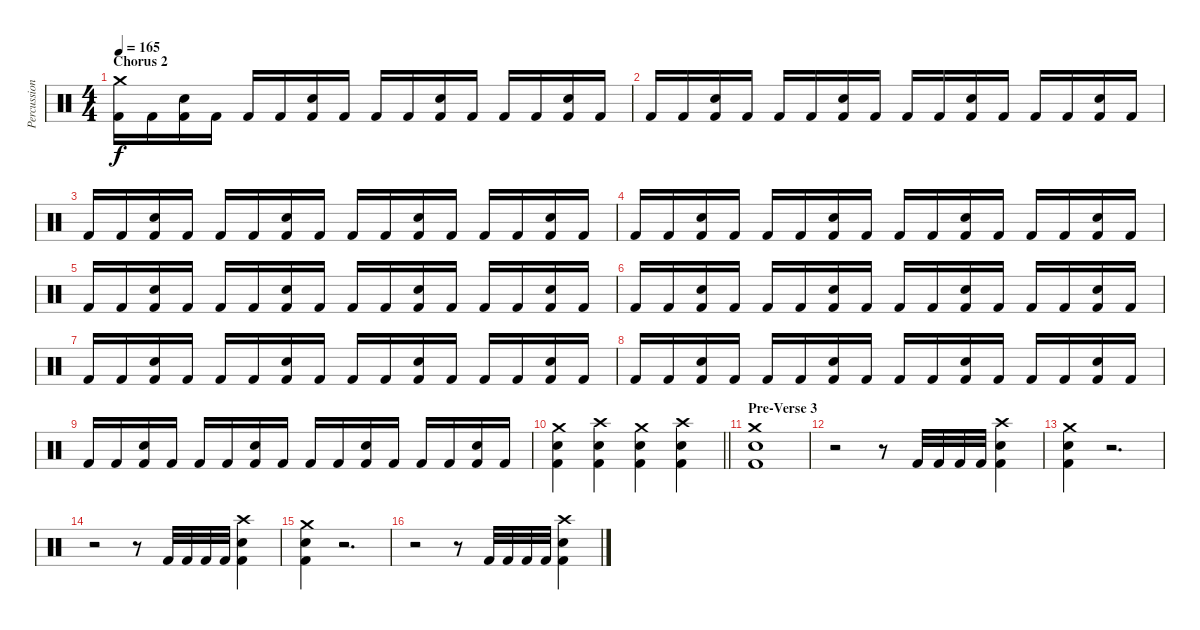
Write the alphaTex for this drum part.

\track ("Percussion" "Percussion") {instrument percussion}
\staff {score}
\articulation defaults
\ts (4 4)
\section ("" "Chorus 2")
\tempo 165
\clef neutral
\ks c
("Crash medium (hit)" "Kick (hit) 2").16{dy f} "Kick (hit) 2".16 ("Kick (hit) 2" "Snare (hit) 2").16 "Kick (hit) 2".16 "Kick (hit) 2".16 "Kick (hit) 2".16 ("Kick (hit) 2" "Snare (hit) 2").16 "Kick (hit) 2".16 "Kick (hit) 2".16 "Kick (hit) 2".16 ("Kick (hit) 2" "Snare (hit) 2").16 "Kick (hit) 2".16 "Kick (hit) 2".16 "Kick (hit) 2".16 ("Kick (hit) 2" "Snare (hit) 2").16 "Kick (hit) 2".16 |
"Kick (hit) 2".16 "Kick (hit) 2".16 ("Kick (hit) 2" "Snare (hit) 2").16 "Kick (hit) 2".16 "Kick (hit) 2".16 "Kick (hit) 2".16 ("Kick (hit) 2" "Snare (hit) 2").16 "Kick (hit) 2".16 "Kick (hit) 2".16 "Kick (hit) 2".16 ("Kick (hit) 2" "Snare (hit) 2").16 "Kick (hit) 2".16 "Kick (hit) 2".16 "Kick (hit) 2".16 ("Kick (hit) 2" "Snare (hit) 2").16 "Kick (hit) 2".16 |
"Kick (hit) 2".16 "Kick (hit) 2".16 ("Kick (hit) 2" "Snare (hit) 2").16 "Kick (hit) 2".16 "Kick (hit) 2".16 "Kick (hit) 2".16 ("Kick (hit) 2" "Snare (hit) 2").16 "Kick (hit) 2".16 "Kick (hit) 2".16 "Kick (hit) 2".16 ("Kick (hit) 2" "Snare (hit) 2").16 "Kick (hit) 2".16 "Kick (hit) 2".16 "Kick (hit) 2".16 ("Kick (hit) 2" "Snare (hit) 2").16 "Kick (hit) 2".16 |
"Kick (hit) 2".16 "Kick (hit) 2".16 ("Kick (hit) 2" "Snare (hit) 2").16 "Kick (hit) 2".16 "Kick (hit) 2".16 "Kick (hit) 2".16 ("Kick (hit) 2" "Snare (hit) 2").16 "Kick (hit) 2".16 "Kick (hit) 2".16 "Kick (hit) 2".16 ("Kick (hit) 2" "Snare (hit) 2").16 "Kick (hit) 2".16 "Kick (hit) 2".16 "Kick (hit) 2".16 ("Kick (hit) 2" "Snare (hit) 2").16 "Kick (hit) 2".16 |
"Kick (hit) 2".16 "Kick (hit) 2".16 ("Kick (hit) 2" "Snare (hit) 2").16 "Kick (hit) 2".16 "Kick (hit) 2".16 "Kick (hit) 2".16 ("Kick (hit) 2" "Snare (hit) 2").16 "Kick (hit) 2".16 "Kick (hit) 2".16 "Kick (hit) 2".16 ("Kick (hit) 2" "Snare (hit) 2").16 "Kick (hit) 2".16 "Kick (hit) 2".16 "Kick (hit) 2".16 ("Kick (hit) 2" "Snare (hit) 2").16 "Kick (hit) 2".16 |
"Kick (hit) 2".16 "Kick (hit) 2".16 ("Kick (hit) 2" "Snare (hit) 2").16 "Kick (hit) 2".16 "Kick (hit) 2".16 "Kick (hit) 2".16 ("Kick (hit) 2" "Snare (hit) 2").16 "Kick (hit) 2".16 "Kick (hit) 2".16 "Kick (hit) 2".16 ("Kick (hit) 2" "Snare (hit) 2").16 "Kick (hit) 2".16 "Kick (hit) 2".16 "Kick (hit) 2".16 ("Kick (hit) 2" "Snare (hit) 2").16 "Kick (hit) 2".16 |
"Kick (hit) 2".16 "Kick (hit) 2".16 ("Kick (hit) 2" "Snare (hit) 2").16 "Kick (hit) 2".16 "Kick (hit) 2".16 "Kick (hit) 2".16 ("Kick (hit) 2" "Snare (hit) 2").16 "Kick (hit) 2".16 "Kick (hit) 2".16 "Kick (hit) 2".16 ("Kick (hit) 2" "Snare (hit) 2").16 "Kick (hit) 2".16 "Kick (hit) 2".16 "Kick (hit) 2".16 ("Kick (hit) 2" "Snare (hit) 2").16 "Kick (hit) 2".16 |
"Kick (hit) 2".16 "Kick (hit) 2".16 ("Kick (hit) 2" "Snare (hit) 2").16 "Kick (hit) 2".16 "Kick (hit) 2".16 "Kick (hit) 2".16 ("Kick (hit) 2" "Snare (hit) 2").16 "Kick (hit) 2".16 "Kick (hit) 2".16 "Kick (hit) 2".16 ("Kick (hit) 2" "Snare (hit) 2").16 "Kick (hit) 2".16 "Kick (hit) 2".16 "Kick (hit) 2".16 ("Kick (hit) 2" "Snare (hit) 2").16 "Kick (hit) 2".16 |
"Kick (hit) 2".16 "Kick (hit) 2".16 ("Kick (hit) 2" "Snare (hit) 2").16 "Kick (hit) 2".16 "Kick (hit) 2".16 "Kick (hit) 2".16 ("Kick (hit) 2" "Snare (hit) 2").16 "Kick (hit) 2".16 "Kick (hit) 2".16 "Kick (hit) 2".16 ("Kick (hit) 2" "Snare (hit) 2").16 "Kick (hit) 2".16 "Kick (hit) 2".16 "Kick (hit) 2".16 ("Kick (hit) 2" "Snare (hit) 2").16 "Kick (hit) 2".16 |
\barLineRight lightlight
("Crash medium (hit)" "Kick (hit) 2" "Snare (hit) 2").4 ("Crash high (hit)" "Kick (hit) 2" "Snare (hit) 2").4 ("Crash medium (hit)" "Kick (hit) 2" "Snare (hit) 2").4 ("Crash high (hit)" "Kick (hit) 2" "Snare (hit) 2").4 |
\section ("" "Pre-Verse 3")
("Crash medium (hit)" "Kick (hit) 2" "Snare (hit) 2").1 |
r.2 r.8 "Kick (hit) 2".32 "Kick (hit) 2".32 "Kick (hit) 2".32 "Kick (hit) 2".32 ("Crash high (hit)" "Kick (hit) 2" "Snare (hit) 2").4 |
("Crash medium (hit)" "Kick (hit) 2" "Snare (hit) 2").4 r.2{d} |
r.2 r.8 "Kick (hit) 2".32 "Kick (hit) 2".32 "Kick (hit) 2".32 "Kick (hit) 2".32 ("Crash high (hit)" "Kick (hit) 2" "Snare (hit) 2").4 |
("Crash medium (hit)" "Kick (hit) 2" "Snare (hit) 2").4 r.2{d} |
r.2 r.8 "Kick (hit) 2".32 "Kick (hit) 2".32 "Kick (hit) 2".32 "Kick (hit) 2".32 ("Crash high (hit)" "Kick (hit) 2" "Snare (hit) 2").4
